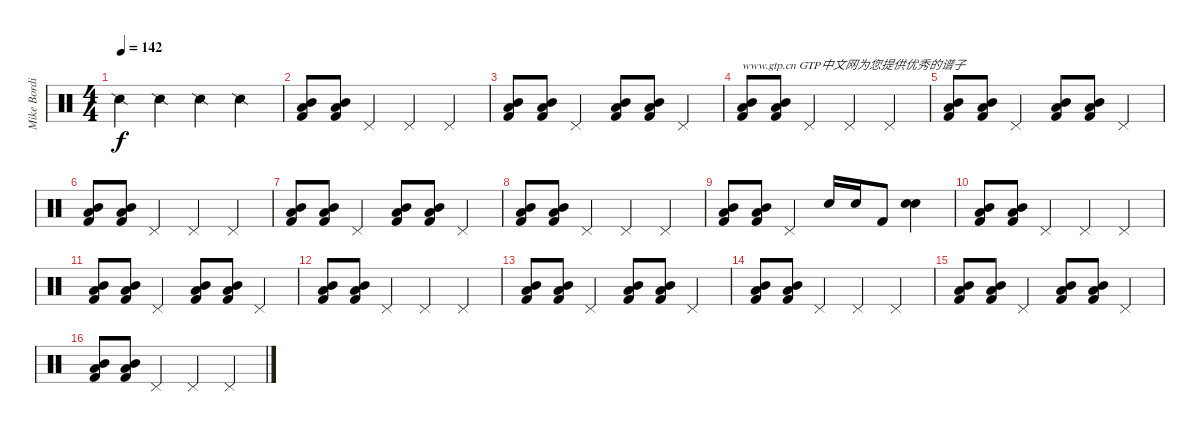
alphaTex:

\track ("Mike Bordin" "Mike Bordi") {instrument percussion}
\staff {score}
\articulation defaults
\ts (4 4)
\tempo 142
\clef neutral
\ks c "Snare (side stick) 2".4{dy f} "Snare (side stick) 2".4 "Snare (side stick) 2".4 "Snare (side stick) 2".4
|
("Mid Tom (hit)" "Low Tom (hit)" "Kick (hit) 2").8 ("Mid Tom (hit)" "Low Tom (hit)" "Kick (hit) 2").8 "Pedal Hi-Hat (hit)".4 "Pedal Hi-Hat (hit)".4 "Pedal Hi-Hat (hit)".4 |
("Mid Tom (hit)" "Low Tom (hit)" "Kick (hit) 2").8 ("Mid Tom (hit)" "Low Tom (hit)" "Kick (hit) 2").8 "Pedal Hi-Hat (hit)".4 ("Mid Tom (hit)" "Low Tom (hit)" "Kick (hit) 2").8 ("Mid Tom (hit)" "Low Tom (hit)" "Kick (hit) 2").8 "Pedal Hi-Hat (hit)".4 |
("Mid Tom (hit)" "Low Tom (hit)" "Kick (hit) 2").8{txt "www.gtp.cn GTP中文网为您提供优秀的谱子"} ("Mid Tom (hit)" "Low Tom (hit)" "Kick (hit) 2").8 "Pedal Hi-Hat (hit)".4 "Pedal Hi-Hat (hit)".4 "Pedal Hi-Hat (hit)".4 |
("Mid Tom (hit)" "Low Tom (hit)" "Kick (hit) 2").8 ("Mid Tom (hit)" "Low Tom (hit)" "Kick (hit) 2").8 "Pedal Hi-Hat (hit)".4 ("Mid Tom (hit)" "Low Tom (hit)" "Kick (hit) 2").8 ("Mid Tom (hit)" "Low Tom (hit)" "Kick (hit) 2").8 "Pedal Hi-Hat (hit)".4 |
("Mid Tom (hit)" "Low Tom (hit)" "Kick (hit) 2").8 ("Mid Tom (hit)" "Low Tom (hit)" "Kick (hit) 2").8 "Pedal Hi-Hat (hit)".4 "Pedal Hi-Hat (hit)".4 "Pedal Hi-Hat (hit)".4 |
("Mid Tom (hit)" "Low Tom (hit)" "Kick (hit) 2").8 ("Mid Tom (hit)" "Low Tom (hit)" "Kick (hit) 2").8 "Pedal Hi-Hat (hit)".4 ("Mid Tom (hit)" "Low Tom (hit)" "Kick (hit) 2").8 ("Mid Tom (hit)" "Low Tom (hit)" "Kick (hit) 2").8 "Pedal Hi-Hat (hit)".4 |
("Mid Tom (hit)" "Low Tom (hit)" "Kick (hit) 2").8 ("Mid Tom (hit)" "Low Tom (hit)" "Kick (hit) 2").8 "Pedal Hi-Hat (hit)".4 "Pedal Hi-Hat (hit)".4 "Pedal Hi-Hat (hit)".4 |
("Mid Tom (hit)" "Low Tom (hit)" "Kick (hit) 2").8 ("Mid Tom (hit)" "Low Tom (hit)" "Kick (hit) 2").8 "Pedal Hi-Hat (hit)".4 "Snare (hit) 2".16 "Snare (hit) 2".16 "Kick (hit) 2".8 ("Snare (hit) 2" "Snare (hit) 2").4{bd 480} |
("Mid Tom (hit)" "Low Tom (hit)" "Kick (hit) 2").8 ("Mid Tom (hit)" "Low Tom (hit)" "Kick (hit) 2").8 "Pedal Hi-Hat (hit)".4 "Pedal Hi-Hat (hit)".4 "Pedal Hi-Hat (hit)".4 |
("Mid Tom (hit)" "Low Tom (hit)" "Kick (hit) 2").8 ("Mid Tom (hit)" "Low Tom (hit)" "Kick (hit) 2").8 "Pedal Hi-Hat (hit)".4 ("Mid Tom (hit)" "Low Tom (hit)" "Kick (hit) 2").8 ("Mid Tom (hit)" "Low Tom (hit)" "Kick (hit) 2").8 "Pedal Hi-Hat (hit)".4 |
("Mid Tom (hit)" "Low Tom (hit)" "Kick (hit) 2").8 ("Mid Tom (hit)" "Low Tom (hit)" "Kick (hit) 2").8 "Pedal Hi-Hat (hit)".4 "Pedal Hi-Hat (hit)".4 "Pedal Hi-Hat (hit)".4 |
("Mid Tom (hit)" "Low Tom (hit)" "Kick (hit) 2").8 ("Mid Tom (hit)" "Low Tom (hit)" "Kick (hit) 2").8 "Pedal Hi-Hat (hit)".4 ("Mid Tom (hit)" "Low Tom (hit)" "Kick (hit) 2").8 ("Mid Tom (hit)" "Low Tom (hit)" "Kick (hit) 2").8 "Pedal Hi-Hat (hit)".4 |
("Mid Tom (hit)" "Low Tom (hit)" "Kick (hit) 2").8 ("Mid Tom (hit)" "Low Tom (hit)" "Kick (hit) 2").8 "Pedal Hi-Hat (hit)".4 "Pedal Hi-Hat (hit)".4 "Pedal Hi-Hat (hit)".4 |
("Mid Tom (hit)" "Low Tom (hit)" "Kick (hit) 2").8 ("Mid Tom (hit)" "Low Tom (hit)" "Kick (hit) 2").8 "Pedal Hi-Hat (hit)".4 ("Mid Tom (hit)" "Low Tom (hit)" "Kick (hit) 2").8 ("Mid Tom (hit)" "Low Tom (hit)" "Kick (hit) 2").8 "Pedal Hi-Hat (hit)".4 |
("Mid Tom (hit)" "Low Tom (hit)" "Kick (hit) 2").8 ("Mid Tom (hit)" "Low Tom (hit)" "Kick (hit) 2").8 "Pedal Hi-Hat (hit)".4 "Pedal Hi-Hat (hit)".4 "Pedal Hi-Hat (hit)".4
